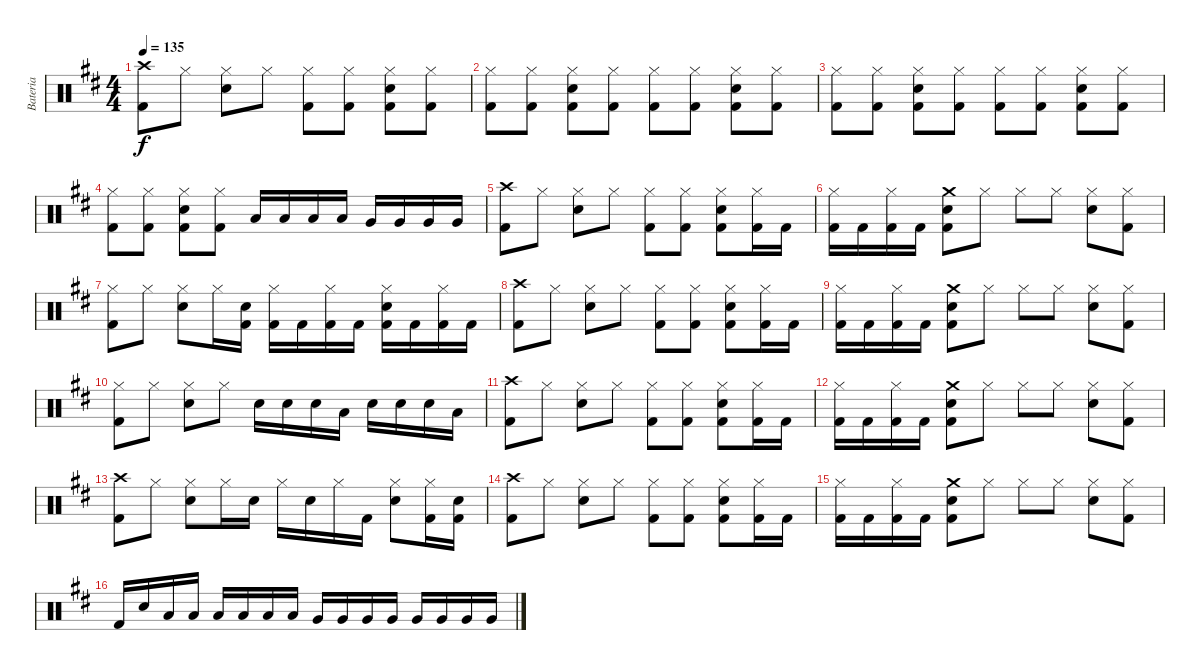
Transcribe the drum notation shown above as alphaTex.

\track ("Bateria" "Bateria") {instrument percussion}
\staff {score}
\articulation defaults
\ts (4 4)
\tempo 135
\clef neutral
\ks d
("Crash high (hit)" "Kick (hit) 2").8{dy f} "Hi-Hat (closed)".8 ("Hi-Hat (closed)" "Snare (hit) 2").8 "Hi-Hat (closed)".8 ("Hi-Hat (closed)" "Kick (hit) 2").8 ("Hi-Hat (closed)" "Kick (hit) 2").8 ("Hi-Hat (closed)" "Snare (hit) 2" "Kick (hit) 2").8 ("Hi-Hat (closed)" "Kick (hit) 2").8 |
("Hi-Hat (closed)" "Kick (hit) 2").8 ("Hi-Hat (closed)" "Kick (hit) 2").8 ("Hi-Hat (closed)" "Snare (hit) 2" "Kick (hit) 2").8 ("Hi-Hat (closed)" "Kick (hit) 2").8 ("Hi-Hat (closed)" "Kick (hit) 2").8 ("Hi-Hat (closed)" "Kick (hit) 2").8 ("Hi-Hat (closed)" "Snare (hit) 2" "Kick (hit) 2").8 ("Hi-Hat (closed)" "Kick (hit) 2").8 |
("Hi-Hat (closed)" "Kick (hit) 2").8 ("Hi-Hat (closed)" "Kick (hit) 2").8 ("Hi-Hat (closed)" "Snare (hit) 2" "Kick (hit) 2").8 ("Hi-Hat (closed)" "Kick (hit) 2").8 ("Hi-Hat (closed)" "Kick (hit) 2").8 ("Hi-Hat (closed)" "Kick (hit) 2").8 ("Hi-Hat (closed)" "Snare (hit) 2" "Kick (hit) 2").8 ("Hi-Hat (closed)" "Kick (hit) 2").8 |
("Hi-Hat (closed)" "Kick (hit) 2").8 ("Hi-Hat (closed)" "Kick (hit) 2").8 ("Hi-Hat (closed)" "Snare (hit) 2" "Kick (hit) 2").8 ("Hi-Hat (closed)" "Kick (hit) 2").8 "Low Tom (hit)".16 "Low Tom (hit)".16 "Low Tom (hit)".16 "Low Tom (hit)".16 "Very Low Tom (hit)".16 "Very Low Tom (hit)".16 "Very Low Tom (hit)".16 "Very Low Tom (hit)".16 |
("Crash high (hit)" "Kick (hit) 2").8 "Hi-Hat (closed)".8 ("Hi-Hat (closed)" "Snare (hit) 2").8 "Hi-Hat (closed)".8 ("Hi-Hat (closed)" "Kick (hit) 2").8 ("Hi-Hat (closed)" "Kick (hit) 2").8 ("Hi-Hat (closed)" "Snare (hit) 2" "Kick (hit) 2").8 ("Hi-Hat (closed)" "Kick (hit) 2").16 "Kick (hit) 2".16 |
("Hi-Hat (closed)" "Kick (hit) 2").16 "Kick (hit) 2".16 ("Hi-Hat (closed)" "Kick (hit) 2").16 "Kick (hit) 2".16 ("Crash medium (hit)" "Snare (hit) 2" "Kick (hit) 2").8 "Hi-Hat (closed)".8 "Hi-Hat (closed)".8 "Hi-Hat (closed)".8 ("Hi-Hat (closed)" "Snare (hit) 2").8 ("Hi-Hat (closed)" "Kick (hit) 2").8 |
("Hi-Hat (closed)" "Kick (hit) 2").8 "Hi-Hat (closed)".8 ("Hi-Hat (closed)" "Snare (hit) 2").8 "Hi-Hat (closed)".16 ("Snare (hit) 2" "Kick (hit) 2").16 ("Hi-Hat (closed)" "Kick (hit) 2").16 "Kick (hit) 2".16 ("Hi-Hat (closed)" "Kick (hit) 2").16 "Kick (hit) 2".16 ("Hi-Hat (closed)" "Snare (hit) 2" "Kick (hit) 2").16 "Kick (hit) 2".16 ("Hi-Hat (closed)" "Kick (hit) 2").16 "Kick (hit) 2".16 |
("Crash high (hit)" "Kick (hit) 2").8 "Hi-Hat (closed)".8 ("Hi-Hat (closed)" "Snare (hit) 2").8 "Hi-Hat (closed)".8 ("Hi-Hat (closed)" "Kick (hit) 2").8 ("Hi-Hat (closed)" "Kick (hit) 2").8 ("Hi-Hat (closed)" "Snare (hit) 2" "Kick (hit) 2").8 ("Hi-Hat (closed)" "Kick (hit) 2").16 "Kick (hit) 2".16 |
("Hi-Hat (closed)" "Kick (hit) 2").16 "Kick (hit) 2".16 ("Hi-Hat (closed)" "Kick (hit) 2").16 "Kick (hit) 2".16 ("Crash medium (hit)" "Snare (hit) 2" "Kick (hit) 2").8 "Hi-Hat (closed)".8 "Hi-Hat (closed)".8 "Hi-Hat (closed)".8 ("Hi-Hat (closed)" "Snare (hit) 2").8 ("Hi-Hat (closed)" "Kick (hit) 2").8 |
("Hi-Hat (closed)" "Kick (hit) 2").8 "Hi-Hat (closed)".8 ("Hi-Hat (closed)" "Snare (hit) 2").8 "Hi-Hat (closed)".8 "Snare (hit) 2".16 "Snare (hit) 2".16 "Snare (hit) 2".16 "Low Tom (hit)".16 "Snare (hit) 2".16 "Snare (hit) 2".16 "Snare (hit) 2".16 "Low Tom (hit)".16 |
("Crash high (hit)" "Kick (hit) 2").8 "Hi-Hat (closed)".8 ("Hi-Hat (closed)" "Snare (hit) 2").8 "Hi-Hat (closed)".8 ("Hi-Hat (closed)" "Kick (hit) 2").8 ("Hi-Hat (closed)" "Kick (hit) 2").8 ("Hi-Hat (closed)" "Snare (hit) 2" "Kick (hit) 2").8 ("Hi-Hat (closed)" "Kick (hit) 2").16 "Kick (hit) 2".16 |
("Hi-Hat (closed)" "Kick (hit) 2").16 "Kick (hit) 2".16 ("Hi-Hat (closed)" "Kick (hit) 2").16 "Kick (hit) 2".16 ("Crash medium (hit)" "Snare (hit) 2" "Kick (hit) 2").8 "Hi-Hat (closed)".8 "Hi-Hat (closed)".8 "Hi-Hat (closed)".8 ("Hi-Hat (closed)" "Snare (hit) 2").8 ("Hi-Hat (closed)" "Kick (hit) 2").8 |
("Crash high (hit)" "Kick (hit) 2").8 "Hi-Hat (closed)".8 ("Hi-Hat (closed)" "Snare (hit) 2").8 "Hi-Hat (closed)".16 "Snare (hit) 2".16 "Hi-Hat (closed)".16 "Snare (hit) 2".16 "Hi-Hat (closed)".16 "Kick (hit) 2".16 ("Hi-Hat (closed)" "Snare (hit) 2").8 ("Hi-Hat (closed)" "Kick (hit) 2").16 ("Snare (hit) 2" "Kick (hit) 2").16 |
("Crash high (hit)" "Kick (hit) 2").8 "Hi-Hat (closed)".8 ("Hi-Hat (closed)" "Snare (hit) 2").8 "Hi-Hat (closed)".8 ("Hi-Hat (closed)" "Kick (hit) 2").8 ("Hi-Hat (closed)" "Kick (hit) 2").8 ("Hi-Hat (closed)" "Snare (hit) 2" "Kick (hit) 2").8 ("Hi-Hat (closed)" "Kick (hit) 2").16 "Kick (hit) 2".16 |
("Hi-Hat (closed)" "Kick (hit) 2").16 "Kick (hit) 2".16 ("Hi-Hat (closed)" "Kick (hit) 2").16 "Kick (hit) 2".16 ("Crash medium (hit)" "Snare (hit) 2" "Kick (hit) 2").8 "Hi-Hat (closed)".8 "Hi-Hat (closed)".8 "Hi-Hat (closed)".8 ("Hi-Hat (closed)" "Snare (hit) 2").8 ("Hi-Hat (closed)" "Kick (hit) 2").8 |
"Kick (hit) 2".16 "Snare (hit) 2".16 "Low Tom (hit)".16 "Low Tom (hit)".16 "Low Tom (hit)".16 "Low Tom (hit)".16 "Low Tom (hit)".16 "Low Tom (hit)".16 "Very Low Tom (hit)".16 "Very Low Tom (hit)".16 "Very Low Tom (hit)".16 "Very Low Tom (hit)".16 "Very Low Tom (hit)".16 "Very Low Tom (hit)".16 "Very Low Tom (hit)".16 "Very Low Tom (hit)".16
